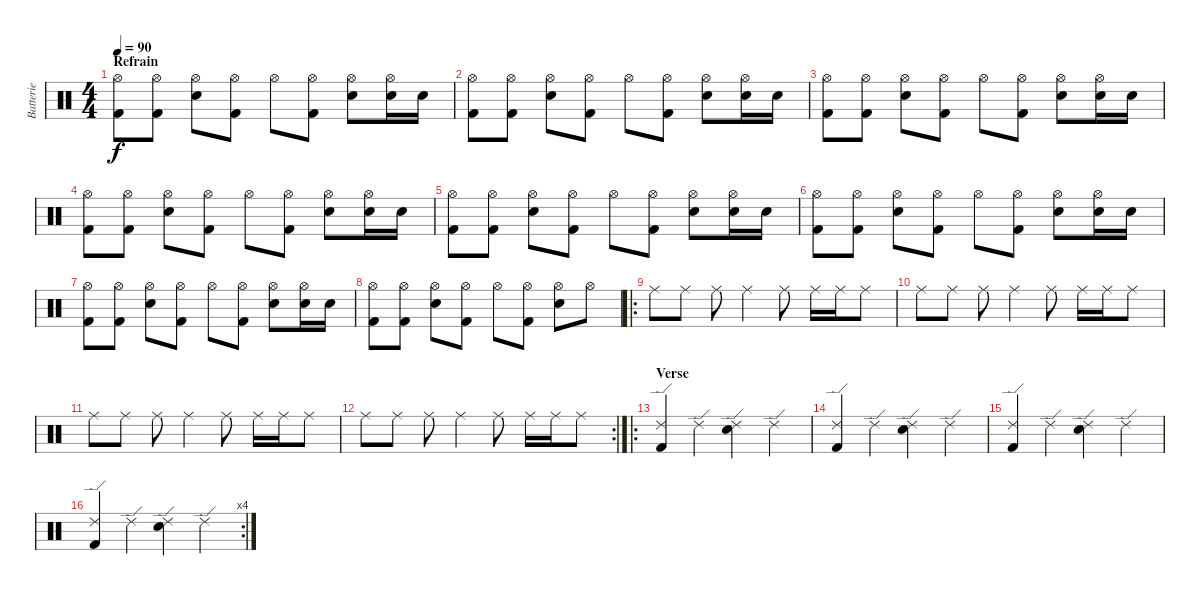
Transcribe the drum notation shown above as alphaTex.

\track ("Batterie" "Batterie") {instrument percussion}
\staff {score}
\articulation defaults
\ts (4 4)
\section ("" "Refrain")
\tempo 90
\clef neutral
\ks c
("Hi-Hat (open)" "Kick (hit) 2").8{dy f} ("Hi-Hat (open)" "Kick (hit) 2").8 ("Hi-Hat (open)" "Electric Snare (hit)").8 ("Hi-Hat (open)" "Kick (hit) 2").8 "Hi-Hat (open)".8 ("Hi-Hat (open)" "Kick (hit) 2").8 ("Hi-Hat (open)" "Electric Snare (hit)").8 ("Hi-Hat (open)" "Electric Snare (hit)").16 "Electric Snare (hit)".16 |
("Hi-Hat (open)" "Kick (hit) 2").8 ("Hi-Hat (open)" "Kick (hit) 2").8 ("Hi-Hat (open)" "Electric Snare (hit)").8 ("Hi-Hat (open)" "Kick (hit) 2").8 "Hi-Hat (open)".8 ("Hi-Hat (open)" "Kick (hit) 2").8 ("Hi-Hat (open)" "Electric Snare (hit)").8 ("Hi-Hat (open)" "Electric Snare (hit)").16 "Electric Snare (hit)".16 |
("Hi-Hat (open)" "Kick (hit) 2").8 ("Hi-Hat (open)" "Kick (hit) 2").8 ("Hi-Hat (open)" "Electric Snare (hit)").8 ("Hi-Hat (open)" "Kick (hit) 2").8 "Hi-Hat (open)".8 ("Hi-Hat (open)" "Kick (hit) 2").8 ("Hi-Hat (open)" "Electric Snare (hit)").8 ("Hi-Hat (open)" "Electric Snare (hit)").16 "Electric Snare (hit)".16 |
("Hi-Hat (open)" "Kick (hit) 2").8 ("Hi-Hat (open)" "Kick (hit) 2").8 ("Hi-Hat (open)" "Electric Snare (hit)").8 ("Hi-Hat (open)" "Kick (hit) 2").8 "Hi-Hat (open)".8 ("Hi-Hat (open)" "Kick (hit) 2").8 ("Hi-Hat (open)" "Electric Snare (hit)").8 ("Hi-Hat (open)" "Electric Snare (hit)").16 "Electric Snare (hit)".16 |
("Hi-Hat (open)" "Kick (hit) 2").8 ("Hi-Hat (open)" "Kick (hit) 2").8 ("Hi-Hat (open)" "Electric Snare (hit)").8 ("Hi-Hat (open)" "Kick (hit) 2").8 "Hi-Hat (open)".8 ("Hi-Hat (open)" "Kick (hit) 2").8 ("Hi-Hat (open)" "Electric Snare (hit)").8 ("Hi-Hat (open)" "Electric Snare (hit)").16 "Electric Snare (hit)".16 |
("Hi-Hat (open)" "Kick (hit) 2").8 ("Hi-Hat (open)" "Kick (hit) 2").8 ("Hi-Hat (open)" "Electric Snare (hit)").8 ("Hi-Hat (open)" "Kick (hit) 2").8 "Hi-Hat (open)".8 ("Hi-Hat (open)" "Kick (hit) 2").8 ("Hi-Hat (open)" "Electric Snare (hit)").8 ("Hi-Hat (open)" "Electric Snare (hit)").16 "Electric Snare (hit)".16 |
("Hi-Hat (open)" "Kick (hit) 2").8 ("Hi-Hat (open)" "Kick (hit) 2").8 ("Hi-Hat (open)" "Electric Snare (hit)").8 ("Hi-Hat (open)" "Kick (hit) 2").8 "Hi-Hat (open)".8 ("Hi-Hat (open)" "Kick (hit) 2").8 ("Hi-Hat (open)" "Electric Snare (hit)").8 ("Hi-Hat (open)" "Electric Snare (hit)").16 "Electric Snare (hit)".16 |
("Hi-Hat (open)" "Kick (hit) 2").8 ("Hi-Hat (open)" "Kick (hit) 2").8 ("Hi-Hat (open)" "Electric Snare (hit)").8 ("Hi-Hat (open)" "Kick (hit) 2").8 "Hi-Hat (open)".8 ("Hi-Hat (open)" "Kick (hit) 2").8 ("Hi-Hat (open)" "Electric Snare (hit)").8 "Hi-Hat (open)".8 |
\ro "Ride (middle)".8 "Ride (middle)".8 "Ride (middle)".8 "Ride (middle)".4 "Ride (middle)".8 "Ride (middle)".16 "Ride (middle)".16 "Ride (middle)".8
|
"Ride (middle)".8 "Ride (middle)".8 "Ride (middle)".8 "Ride (middle)".4 "Ride (middle)".8 "Ride (middle)".16 "Ride (middle)".16 "Ride (middle)".8 |
"Ride (middle)".8 "Ride (middle)".8 "Ride (middle)".8 "Ride (middle)".4 "Ride (middle)".8 "Ride (middle)".16 "Ride (middle)".16 "Ride (middle)".8 |
\rc 2 "Ride (middle)".8 "Ride (middle)".8 "Ride (middle)".8 "Ride (middle)".4 "Ride (middle)".8 "Ride (middle)".16 "Ride (middle)".16 "Ride (middle)".8
|
\ro
\section ("" "Verse")
("Kick (hit) 2" "Ride (edge) 2").4 "Ride (edge) 2".4 ("Electric Snare (hit)" "Ride (edge) 2").4 "Ride (edge) 2".4 |
("Kick (hit) 2" "Ride (edge) 2").4 "Ride (edge) 2".4 ("Electric Snare (hit)" "Ride (edge) 2").4 "Ride (edge) 2".4 |
("Kick (hit) 2" "Ride (edge) 2").4 "Ride (edge) 2".4 ("Electric Snare (hit)" "Ride (edge) 2").4 "Ride (edge) 2".4 |
\rc 4
("Kick (hit) 2" "Ride (edge) 2").4 "Ride (edge) 2".4 ("Electric Snare (hit)" "Ride (edge) 2").4 "Ride (edge) 2".4
